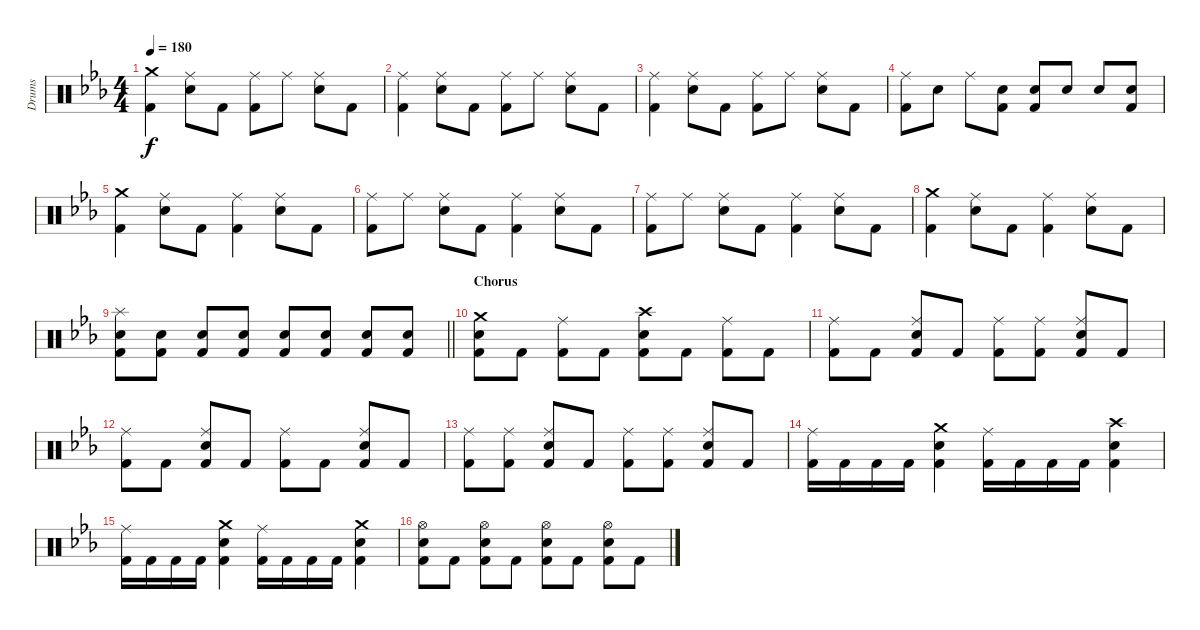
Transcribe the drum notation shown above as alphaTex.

\track ("Drums" "Drums") {instrument percussion}
\staff {score}
\articulation defaults
\ts (4 4)
\section ("" "")
\tempo 180
\clef neutral
\ks eb
("Crash medium (hit)" "Kick (hit) 2").4{dy f} ("Ride (middle)" "Snare (hit) 2").8 "Kick (hit) 2".8 ("Ride (middle)" "Kick (hit) 2").8 "Ride (middle)".8 ("Ride (middle)" "Snare (hit) 2").8 "Kick (hit) 2".8 |
("Ride (middle)" "Kick (hit) 2").4 ("Ride (middle)" "Snare (hit) 2").8 "Kick (hit) 2".8 ("Ride (middle)" "Kick (hit) 2").8 "Ride (middle)".8 ("Ride (middle)" "Snare (hit) 2").8 "Kick (hit) 2".8 |
("Ride (middle)" "Kick (hit) 2").4 ("Ride (middle)" "Snare (hit) 2").8 "Kick (hit) 2".8 ("Ride (middle)" "Kick (hit) 2").8 "Ride (middle)".8 ("Ride (middle)" "Snare (hit) 2").8 "Kick (hit) 2".8 |
("Ride (middle)" "Kick (hit) 2").8 "Snare (hit) 2".8 "Ride (middle)".8 ("Snare (hit) 2" "Kick (hit) 2").8 ("Snare (hit) 2" "Kick (hit) 2").8 "Snare (hit) 2".8 "Snare (hit) 2".8 ("Snare (hit) 2" "Kick (hit) 2").8 |
("Crash medium (hit)" "Kick (hit) 2").4 ("Ride (middle)" "Snare (hit) 2").8 "Kick (hit) 2".8 ("Ride (middle)" "Kick (hit) 2").4 ("Ride (middle)" "Snare (hit) 2").8 "Kick (hit) 2".8 |
("Ride (middle)" "Kick (hit) 2").8 "Ride (middle)".8 ("Ride (middle)" "Snare (hit) 2").8 "Kick (hit) 2".8 ("Ride (middle)" "Kick (hit) 2").4 ("Ride (middle)" "Snare (hit) 2").8 "Kick (hit) 2".8 |
("Ride (middle)" "Kick (hit) 2").8 "Ride (middle)".8 ("Ride (middle)" "Snare (hit) 2").8 "Kick (hit) 2".8 ("Ride (middle)" "Kick (hit) 2").4 ("Ride (middle)" "Snare (hit) 2").8 "Kick (hit) 2".8 |
("Crash medium (hit)" "Kick (hit) 2").4 ("Ride (middle)" "Snare (hit) 2").8 "Kick (hit) 2".8 ("Ride (middle)" "Kick (hit) 2").4 ("Ride (middle)" "Snare (hit) 2").8 "Kick (hit) 2".8 |
\barLineRight lightlight
("Splash (hit)" "Snare (hit) 2" "Kick (hit) 2").8 ("Snare (hit) 2" "Kick (hit) 2").8 ("Snare (hit) 2" "Kick (hit) 2").8 ("Snare (hit) 2" "Kick (hit) 2").8 ("Snare (hit) 2" "Kick (hit) 2").8 ("Snare (hit) 2" "Kick (hit) 2").8 ("Snare (hit) 2" "Kick (hit) 2").8 ("Snare (hit) 2" "Kick (hit) 2").8 |
\section ("" "Chorus")
("Crash medium (hit)" "Snare (hit) 2" "Kick (hit) 2").8 "Kick (hit) 2".8 ("Ride (middle)" "Kick (hit) 2").8 "Kick (hit) 2".8 ("Crash high (hit)" "Snare (hit) 2" "Kick (hit) 2").8 "Kick (hit) 2".8 ("Ride (middle)" "Kick (hit) 2").8 "Kick (hit) 2".8 |
("Ride (middle)" "Kick (hit) 2").8 "Kick (hit) 2".8 ("Ride (middle)" "Snare (hit) 2" "Kick (hit) 2").8 "Kick (hit) 2".8 ("Ride (middle)" "Kick (hit) 2").8 ("Ride (middle)" "Kick (hit) 2").8 ("Ride (middle)" "Snare (hit) 2" "Kick (hit) 2").8 "Kick (hit) 2".8 |
("Ride (middle)" "Kick (hit) 2").8 "Kick (hit) 2".8 ("Ride (middle)" "Snare (hit) 2" "Kick (hit) 2").8 "Kick (hit) 2".8 ("Ride (middle)" "Kick (hit) 2").8 "Kick (hit) 2".8 ("Ride (middle)" "Snare (hit) 2" "Kick (hit) 2").8 "Kick (hit) 2".8 |
("Ride (middle)" "Kick (hit) 2").8 ("Ride (middle)" "Kick (hit) 2").8 ("Ride (middle)" "Snare (hit) 2" "Kick (hit) 2").8 "Kick (hit) 2".8 ("Ride (middle)" "Kick (hit) 2").8 ("Ride (middle)" "Kick (hit) 2").8 ("Ride (middle)" "Snare (hit) 2" "Kick (hit) 2").8 "Kick (hit) 2".8 |
("Ride (middle)" "Kick (hit) 2").16 "Kick (hit) 2".16 "Kick (hit) 2".16 "Kick (hit) 2".16 ("Crash medium (hit)" "Snare (hit) 2" "Kick (hit) 2").4 ("Ride (middle)" "Kick (hit) 2").16 "Kick (hit) 2".16 "Kick (hit) 2".16 "Kick (hit) 2".16 ("Crash high (hit)" "Snare (hit) 2" "Kick (hit) 2").4 |
("Ride (middle)" "Kick (hit) 2").16 "Kick (hit) 2".16 "Kick (hit) 2".16 "Kick (hit) 2".16 ("Crash medium (hit)" "Snare (hit) 2" "Kick (hit) 2").4 ("Ride (middle)" "Kick (hit) 2").16 "Kick (hit) 2".16 "Kick (hit) 2".16 "Kick (hit) 2".16 ("Crash medium (hit)" "Snare (hit) 2" "Kick (hit) 2").4 |
("Hi-Hat (open)" "Snare (hit) 2" "Kick (hit) 2").8 "Kick (hit) 2".8 ("Hi-Hat (open)" "Snare (hit) 2" "Kick (hit) 2").8 "Kick (hit) 2".8 ("Hi-Hat (open)" "Snare (hit) 2" "Kick (hit) 2").8 "Kick (hit) 2".8 ("Hi-Hat (open)" "Snare (hit) 2" "Kick (hit) 2").8 "Kick (hit) 2".8
